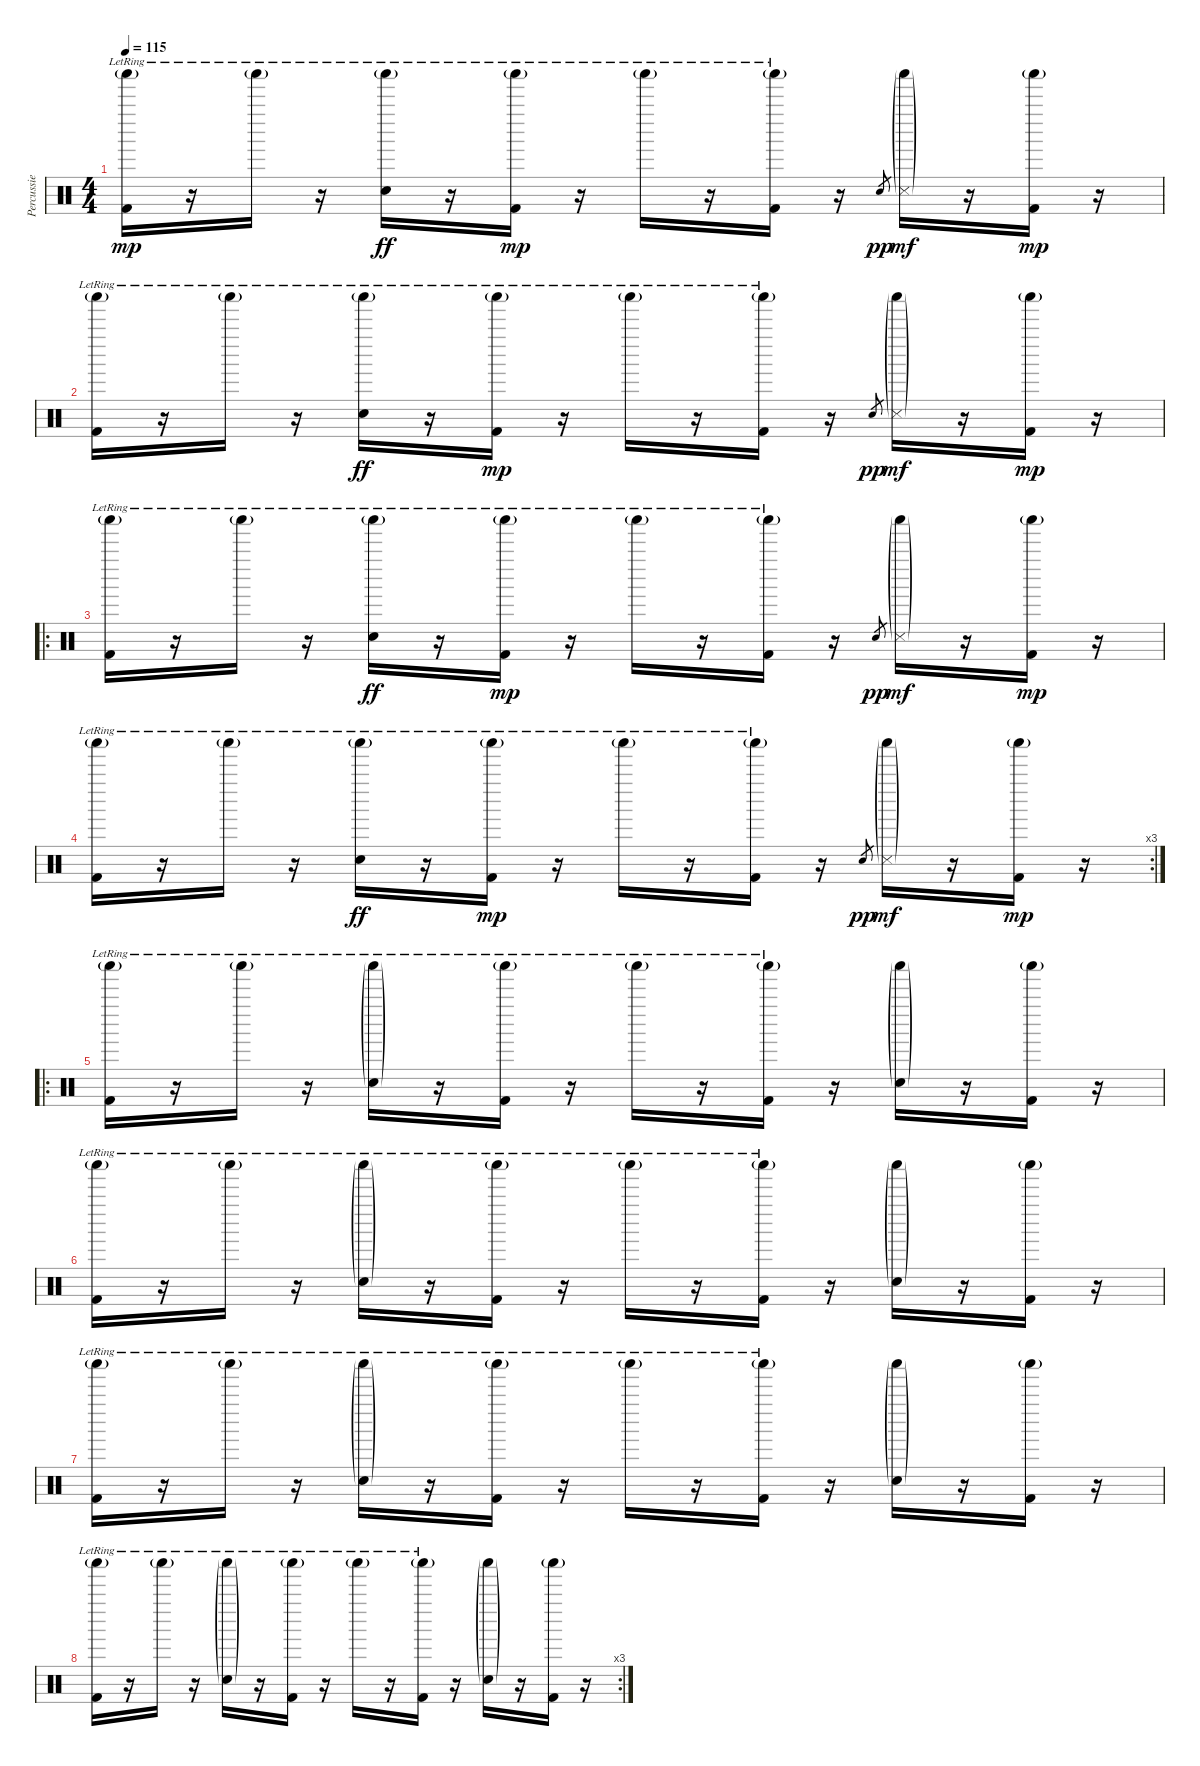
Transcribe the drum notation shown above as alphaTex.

\track ("Percussie" "Percussie") {instrument percussion}
\staff {score}
\articulation defaults
\ts (4 4)
\tempo 115
\clef neutral
\ks c
("Shaker (hit)"{g lr} "Kick (hit) 2").16{dy mp} r.16 "Shaker (hit)"{g lr}.16 r.16 ("Shaker (hit)"{g lr} "Hand Clap (hit)"{lr}).16{dy ff} r.16 ("Shaker (hit)"{g lr} "Kick (hit) 2").16{dy mp} r.16 "Shaker (hit)"{g lr}.16 r.16 ("Shaker (hit)"{g lr} "Kick (hit) 2").16 r.16 "Snare (hit)".8{gr dy pp} ("Shaker (hit)"{g} "Metronome (hit)"{g}).16{dy mf} r.16 ("Shaker (hit)"{g} "Kick (hit) 2").16{dy mp} r.16 |
("Shaker (hit)"{g lr} "Kick (hit) 2").16 r.16 "Shaker (hit)"{g lr}.16 r.16 ("Shaker (hit)"{g lr} "Hand Clap (hit)"{lr}).16{dy ff} r.16 ("Shaker (hit)"{g lr} "Kick (hit) 2").16{dy mp} r.16 "Shaker (hit)"{g lr}.16 r.16 ("Shaker (hit)"{g lr} "Kick (hit) 2").16 r.16 "Snare (hit)".8{gr dy pp} ("Shaker (hit)"{g} "Metronome (hit)"{g}).16{dy mf} r.16 ("Shaker (hit)"{g} "Kick (hit) 2").16{dy mp} r.16 |
\ro
("Shaker (hit)"{g lr} "Kick (hit) 2").16 r.16 "Shaker (hit)"{g lr}.16 r.16 ("Shaker (hit)"{g lr} "Hand Clap (hit)"{lr}).16{dy ff} r.16 ("Shaker (hit)"{g lr} "Kick (hit) 2").16{dy mp} r.16 "Shaker (hit)"{g lr}.16 r.16 ("Shaker (hit)"{g lr} "Kick (hit) 2").16 r.16 "Snare (hit)".8{gr dy pp} ("Shaker (hit)"{g} "Metronome (hit)"{g}).16{dy mf} r.16 ("Shaker (hit)"{g} "Kick (hit) 2").16{dy mp} r.16 |
\rc 3
("Shaker (hit)"{g lr} "Kick (hit) 2").16 r.16 "Shaker (hit)"{g lr}.16 r.16 ("Shaker (hit)"{g lr} "Hand Clap (hit)"{lr}).16{dy ff} r.16 ("Shaker (hit)"{g lr} "Kick (hit) 2").16{dy mp} r.16 "Shaker (hit)"{g lr}.16 r.16 ("Shaker (hit)"{g lr} "Kick (hit) 2").16 r.16 "Snare (hit)".8{gr dy pp} ("Shaker (hit)"{g} "Metronome (hit)"{g}).16{dy mf} r.16 ("Shaker (hit)"{g} "Kick (hit) 2").16{dy mp} r.16 |
\ro
("Shaker (hit)"{g lr} "Kick (hit) 2").16 r.16 "Shaker (hit)"{g lr}.16 r.16 ("Shaker (hit)"{g lr} "Snare (hit) 2"{g}).16 r.16 ("Shaker (hit)"{g lr} "Kick (hit) 2").16 r.16 "Shaker (hit)"{g lr}.16 r.16 ("Shaker (hit)"{g lr} "Kick (hit) 2").16 r.16 ("Shaker (hit)"{g} "Snare (hit) 2"{g}).16 r.16 ("Shaker (hit)"{g} "Kick (hit) 2").16 r.16 |
("Shaker (hit)"{g lr} "Kick (hit) 2").16 r.16 "Shaker (hit)"{g lr}.16 r.16 ("Shaker (hit)"{g lr} "Snare (hit) 2"{g}).16 r.16 ("Shaker (hit)"{g lr} "Kick (hit) 2").16 r.16 "Shaker (hit)"{g lr}.16 r.16 ("Shaker (hit)"{g lr} "Kick (hit) 2").16 r.16 ("Shaker (hit)"{g} "Snare (hit) 2"{g}).16 r.16 ("Shaker (hit)"{g} "Kick (hit) 2").16 r.16 |
("Shaker (hit)"{g lr} "Kick (hit) 2").16 r.16 "Shaker (hit)"{g lr}.16 r.16 ("Shaker (hit)"{g lr} "Snare (hit) 2"{g}).16 r.16 ("Shaker (hit)"{g lr} "Kick (hit) 2").16 r.16 "Shaker (hit)"{g lr}.16 r.16 ("Shaker (hit)"{g lr} "Kick (hit) 2").16 r.16 ("Shaker (hit)"{g} "Snare (hit) 2"{g}).16 r.16 ("Shaker (hit)"{g} "Kick (hit) 2").16 r.16 |
\rc 3
("Shaker (hit)"{g lr} "Kick (hit) 2").16 r.16 "Shaker (hit)"{g lr}.16 r.16 ("Shaker (hit)"{g lr} "Snare (hit) 2"{g}).16 r.16 ("Shaker (hit)"{g lr} "Kick (hit) 2").16 r.16 "Shaker (hit)"{g lr}.16 r.16 ("Shaker (hit)"{g lr} "Kick (hit) 2").16 r.16 ("Shaker (hit)"{g} "Snare (hit) 2"{g}).16 r.16 ("Shaker (hit)"{g} "Kick (hit) 2").16 r.16
